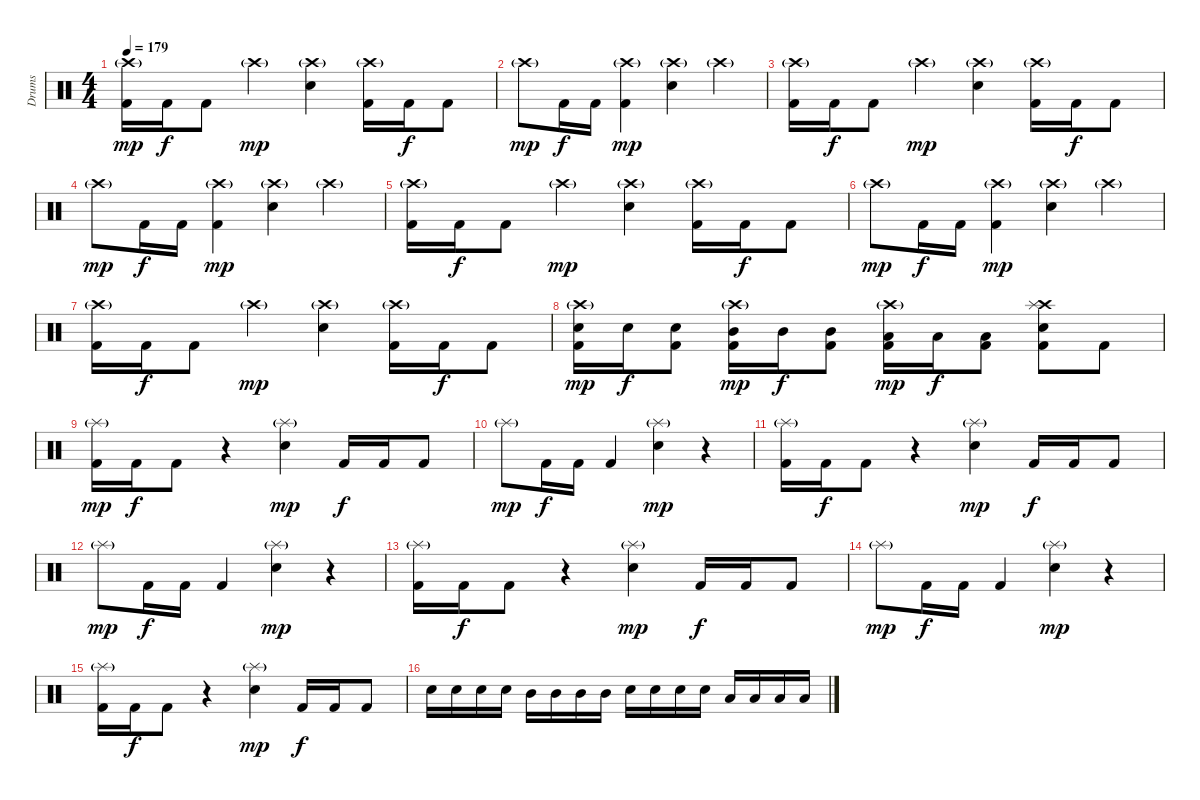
\track ("Drums" "Drums") {instrument percussion}
\staff {score}
\articulation defaults
\ts (4 4)
\tempo 179
\clef neutral
\ks c
("Crash high (hit)"{g} "Kick (hit) 2").16{dy mp} "Kick (hit) 2".16{dy f} "Kick (hit) 2".8 "Crash high (hit)"{g}.4{dy mp} ("Crash high (hit)"{g} "Snare (hit) 2").4 ("Crash high (hit)"{g} "Kick (hit) 2").16 "Kick (hit) 2".16{dy f} "Kick (hit) 2".8 |
"Crash high (hit)"{g}.8{dy mp} "Kick (hit) 2".16{dy f} "Kick (hit) 2".16 ("Crash high (hit)"{g} "Kick (hit) 2").4{dy mp} ("Crash high (hit)"{g} "Snare (hit) 2").4 "Crash high (hit)"{g}.4 |
("Crash high (hit)"{g} "Kick (hit) 2").16 "Kick (hit) 2".16{dy f} "Kick (hit) 2".8 "Crash high (hit)"{g}.4{dy mp} ("Crash high (hit)"{g} "Snare (hit) 2").4 ("Crash high (hit)"{g} "Kick (hit) 2").16 "Kick (hit) 2".16{dy f} "Kick (hit) 2".8 |
"Crash high (hit)"{g}.8{dy mp} "Kick (hit) 2".16{dy f} "Kick (hit) 2".16 ("Crash high (hit)"{g} "Kick (hit) 2").4{dy mp} ("Crash high (hit)"{g} "Snare (hit) 2").4 "Crash high (hit)"{g}.4 |
("Crash high (hit)"{g} "Kick (hit) 2").16 "Kick (hit) 2".16{dy f} "Kick (hit) 2".8 "Crash high (hit)"{g}.4{dy mp} ("Crash high (hit)"{g} "Snare (hit) 2").4 ("Crash high (hit)"{g} "Kick (hit) 2").16 "Kick (hit) 2".16{dy f} "Kick (hit) 2".8 |
"Crash high (hit)"{g}.8{dy mp} "Kick (hit) 2".16{dy f} "Kick (hit) 2".16 ("Crash high (hit)"{g} "Kick (hit) 2").4{dy mp} ("Crash high (hit)"{g} "Snare (hit) 2").4 "Crash high (hit)"{g}.4 |
("Crash high (hit)"{g} "Kick (hit) 2").16 "Kick (hit) 2".16{dy f} "Kick (hit) 2".8 "Crash high (hit)"{g}.4{dy mp} ("Crash high (hit)"{g} "Snare (hit) 2").4 ("Crash high (hit)"{g} "Kick (hit) 2").16 "Kick (hit) 2".16{dy f} "Kick (hit) 2".8 |
("Crash high (hit)"{g} "Snare (hit) 2" "Kick (hit) 2").16{dy mp} "Snare (hit) 2".16{dy f} ("Snare (hit) 2" "Kick (hit) 2").8 ("Crash high (hit)"{g} "Mid Tom (hit)" "Kick (hit) 2").16{dy mp} "Mid Tom (hit)".16{dy f} ("Mid Tom (hit)" "Kick (hit) 2").8 ("Crash high (hit)"{g} "Low Tom (hit)" "Kick (hit) 2").16{dy mp} "Low Tom (hit)".16{dy f} ("Low Tom (hit)" "Kick (hit) 2").8 ("Crash high (hit)" "Splash (hit)" "Snare (hit) 2" "Kick (hit) 2").8 "Kick (hit) 2".8 |
("Splash (hit)"{g} "Kick (hit) 2").16{dy mp} "Kick (hit) 2".16{dy f} "Kick (hit) 2".8 r.4 ("Splash (hit)"{g} "Snare (hit) 2").4{dy mp} "Kick (hit) 2".16{dy f} "Kick (hit) 2".16 "Kick (hit) 2".8 |
"Splash (hit)"{g}.8{dy mp} "Kick (hit) 2".16{dy f} "Kick (hit) 2".16 "Kick (hit) 2".4 ("Splash (hit)"{g} "Snare (hit) 2").4{dy mp} r.4 |
("Splash (hit)"{g} "Kick (hit) 2").16 "Kick (hit) 2".16{dy f} "Kick (hit) 2".8 r.4 ("Splash (hit)"{g} "Snare (hit) 2").4{dy mp} "Kick (hit) 2".16{dy f} "Kick (hit) 2".16 "Kick (hit) 2".8 |
"Splash (hit)"{g}.8{dy mp} "Kick (hit) 2".16{dy f} "Kick (hit) 2".16 "Kick (hit) 2".4 ("Splash (hit)"{g} "Snare (hit) 2").4{dy mp} r.4 |
("Splash (hit)"{g} "Kick (hit) 2").16 "Kick (hit) 2".16{dy f} "Kick (hit) 2".8 r.4 ("Splash (hit)"{g} "Snare (hit) 2").4{dy mp} "Kick (hit) 2".16{dy f} "Kick (hit) 2".16 "Kick (hit) 2".8 |
"Splash (hit)"{g}.8{dy mp} "Kick (hit) 2".16{dy f} "Kick (hit) 2".16 "Kick (hit) 2".4 ("Splash (hit)"{g} "Snare (hit) 2").4{dy mp} r.4 |
("Splash (hit)"{g} "Kick (hit) 2").16 "Kick (hit) 2".16{dy f} "Kick (hit) 2".8 r.4 ("Splash (hit)"{g} "Snare (hit) 2").4{dy mp} "Kick (hit) 2".16{dy f} "Kick (hit) 2".16 "Kick (hit) 2".8 |
"Snare (hit) 2".16 "Snare (hit) 2".16 "Snare (hit) 2".16 "Snare (hit) 2".16 "Mid Tom (hit)".16 "Mid Tom (hit)".16 "Mid Tom (hit)".16 "Mid Tom (hit)".16 "Snare (hit) 2".16 "Snare (hit) 2".16 "Snare (hit) 2".16 "Snare (hit) 2".16 "Low Tom (hit)".16 "Low Tom (hit)".16 "Low Tom (hit)".16 "Low Tom (hit)".16
